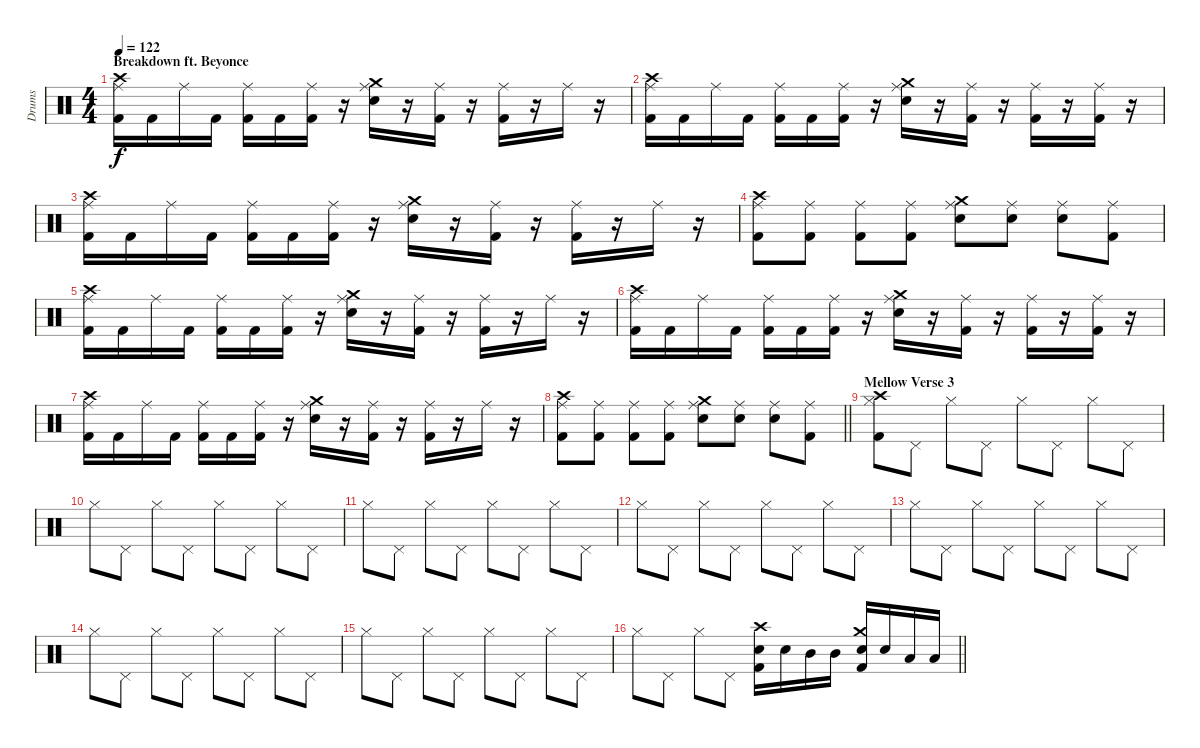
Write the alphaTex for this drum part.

\track ("Drums" "Drums") {instrument percussion}
\staff {score}
\articulation defaults
\ts (4 4)
\section ("" "Breakdown ft. Beyonce")
\tempo 122
\clef neutral
\ks c
("Crash high (hit)" "Ride (middle)" "Kick (hit) 2").16{dy f} "Kick (hit) 2".16 "Ride (middle)".16 "Kick (hit) 2".16 ("Ride (middle)" "Kick (hit) 2").16 "Kick (hit) 2".16 ("Ride (middle)" "Kick (hit) 2").16 r.16 ("Crash medium (hit)" "Ride (middle)" "Snare (hit) 2").16 r.16 ("Ride (middle)" "Kick (hit) 2").16 r.16 ("Ride (middle)" "Kick (hit) 2").16 r.16 "Ride (middle)".16 r.16 |
("Crash high (hit)" "Ride (middle)" "Kick (hit) 2").16 "Kick (hit) 2".16 "Ride (middle)".16 "Kick (hit) 2".16 ("Ride (middle)" "Kick (hit) 2").16 "Kick (hit) 2".16 ("Ride (middle)" "Kick (hit) 2").16 r.16 ("Crash medium (hit)" "Ride (middle)" "Snare (hit) 2").16 r.16 ("Ride (middle)" "Kick (hit) 2").16 r.16 ("Ride (middle)" "Kick (hit) 2").16 r.16 ("Ride (middle)" "Kick (hit) 2").16 r.16 |
("Crash high (hit)" "Ride (middle)" "Kick (hit) 2").16 "Kick (hit) 2".16 "Ride (middle)".16 "Kick (hit) 2".16 ("Ride (middle)" "Kick (hit) 2").16 "Kick (hit) 2".16 ("Ride (middle)" "Kick (hit) 2").16 r.16 ("Crash medium (hit)" "Ride (middle)" "Snare (hit) 2").16 r.16 ("Ride (middle)" "Kick (hit) 2").16 r.16 ("Ride (middle)" "Kick (hit) 2").16 r.16 "Ride (middle)".16 r.16 |
("Crash high (hit)" "Ride (middle)" "Kick (hit) 2").8 ("Ride (middle)" "Kick (hit) 2").8 ("Ride (middle)" "Kick (hit) 2").8 ("Ride (middle)" "Kick (hit) 2").8 ("Crash medium (hit)" "Ride (middle)" "Snare (hit) 2").8 ("Ride (middle)" "Snare (hit) 2").8 ("Ride (middle)" "Snare (hit) 2").8 ("Ride (middle)" "Kick (hit) 2").8 |
("Crash high (hit)" "Ride (middle)" "Kick (hit) 2").16 "Kick (hit) 2".16 "Ride (middle)".16 "Kick (hit) 2".16 ("Ride (middle)" "Kick (hit) 2").16 "Kick (hit) 2".16 ("Ride (middle)" "Kick (hit) 2").16 r.16 ("Crash medium (hit)" "Ride (middle)" "Snare (hit) 2").16 r.16 ("Ride (middle)" "Kick (hit) 2").16 r.16 ("Ride (middle)" "Kick (hit) 2").16 r.16 "Ride (middle)".16 r.16 |
("Crash high (hit)" "Ride (middle)" "Kick (hit) 2").16 "Kick (hit) 2".16 "Ride (middle)".16 "Kick (hit) 2".16 ("Ride (middle)" "Kick (hit) 2").16 "Kick (hit) 2".16 ("Ride (middle)" "Kick (hit) 2").16 r.16 ("Crash medium (hit)" "Ride (middle)" "Snare (hit) 2").16 r.16 ("Ride (middle)" "Kick (hit) 2").16 r.16 ("Ride (middle)" "Kick (hit) 2").16 r.16 ("Ride (middle)" "Kick (hit) 2").16 r.16 |
("Crash high (hit)" "Ride (middle)" "Kick (hit) 2").16 "Kick (hit) 2".16 "Ride (middle)".16 "Kick (hit) 2".16 ("Ride (middle)" "Kick (hit) 2").16 "Kick (hit) 2".16 ("Ride (middle)" "Kick (hit) 2").16 r.16 ("Crash medium (hit)" "Ride (middle)" "Snare (hit) 2").16 r.16 ("Ride (middle)" "Kick (hit) 2").16 r.16 ("Ride (middle)" "Kick (hit) 2").16 r.16 "Ride (middle)".16 r.16 |
\barLineRight lightlight
("Crash high (hit)" "Ride (middle)" "Kick (hit) 2").8 ("Ride (middle)" "Kick (hit) 2").8 ("Ride (middle)" "Kick (hit) 2").8 ("Ride (middle)" "Kick (hit) 2").8 ("Crash medium (hit)" "Ride (middle)" "Snare (hit) 2").8 ("Ride (middle)" "Snare (hit) 2").8 ("Ride (middle)" "Snare (hit) 2").8 ("Ride (middle)" "Kick (hit) 2").8 |
\section ("" "Mellow Verse 3")
("Crash high (hit)" "Hi-Hat (closed)" "Kick (hit) 2").8 "Pedal Hi-Hat (hit)".8 "Hi-Hat (closed)".8 "Pedal Hi-Hat (hit)".8 "Hi-Hat (closed)".8 "Pedal Hi-Hat (hit)".8 "Hi-Hat (closed)".8 "Pedal Hi-Hat (hit)".8 |
"Hi-Hat (closed)".8 "Pedal Hi-Hat (hit)".8 "Hi-Hat (closed)".8 "Pedal Hi-Hat (hit)".8 "Hi-Hat (closed)".8 "Pedal Hi-Hat (hit)".8 "Hi-Hat (closed)".8 "Pedal Hi-Hat (hit)".8 |
"Hi-Hat (closed)".8 "Pedal Hi-Hat (hit)".8 "Hi-Hat (closed)".8 "Pedal Hi-Hat (hit)".8 "Hi-Hat (closed)".8 "Pedal Hi-Hat (hit)".8 "Hi-Hat (closed)".8 "Pedal Hi-Hat (hit)".8 |
"Hi-Hat (closed)".8 "Pedal Hi-Hat (hit)".8 "Hi-Hat (closed)".8 "Pedal Hi-Hat (hit)".8 "Hi-Hat (closed)".8 "Pedal Hi-Hat (hit)".8 "Hi-Hat (closed)".8 "Pedal Hi-Hat (hit)".8 |
"Hi-Hat (closed)".8 "Pedal Hi-Hat (hit)".8 "Hi-Hat (closed)".8 "Pedal Hi-Hat (hit)".8 "Hi-Hat (closed)".8 "Pedal Hi-Hat (hit)".8 "Hi-Hat (closed)".8 "Pedal Hi-Hat (hit)".8 |
"Hi-Hat (closed)".8 "Pedal Hi-Hat (hit)".8 "Hi-Hat (closed)".8 "Pedal Hi-Hat (hit)".8 "Hi-Hat (closed)".8 "Pedal Hi-Hat (hit)".8 "Hi-Hat (closed)".8 "Pedal Hi-Hat (hit)".8 |
"Hi-Hat (closed)".8 "Pedal Hi-Hat (hit)".8 "Hi-Hat (closed)".8 "Pedal Hi-Hat (hit)".8 "Hi-Hat (closed)".8 "Pedal Hi-Hat (hit)".8 "Hi-Hat (closed)".8 "Pedal Hi-Hat (hit)".8 |
\barLineRight lightlight "Hi-Hat (closed)".8 "Pedal Hi-Hat (hit)".8 "Hi-Hat (closed)".8 "Pedal Hi-Hat (hit)".8
("Crash high (hit)" "Snare (hit) 2" "Kick (hit) 2").16 "Snare (hit) 2".16 "Mid Tom (hit)".16 "Mid Tom (hit)".16 ("Crash medium (hit)" "Snare (hit) 2" "Kick (hit) 2").16 "Snare (hit) 2".16 "Low Tom (hit)".16 "Low Tom (hit)".16
